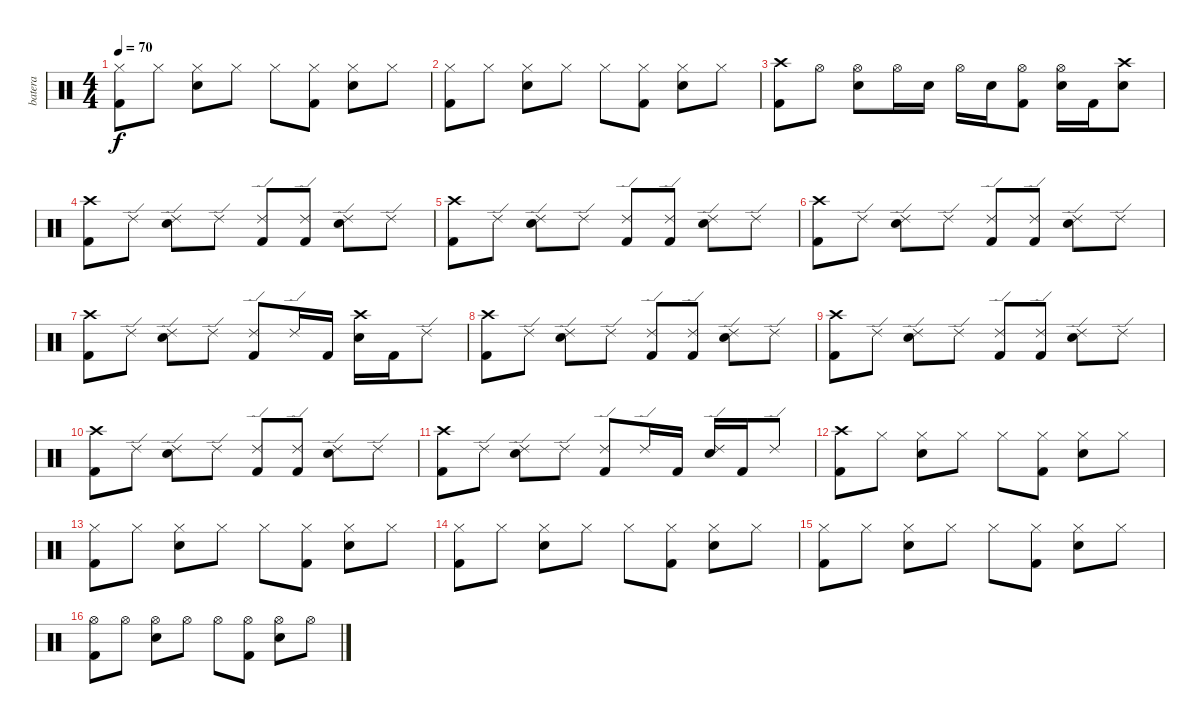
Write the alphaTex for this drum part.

\track ("batera" "batera") {instrument percussion}
\staff {score}
\articulation defaults
\ts (4 4)
\tempo 70
\clef neutral
\ks c
("Kick (hit) 2" "Hi-Hat (closed)").8{dy f} "Hi-Hat (closed)".8 ("Electric Snare (hit)" "Hi-Hat (closed)").8 "Hi-Hat (closed)".8 "Hi-Hat (closed)".8 ("Kick (hit) 2" "Hi-Hat (closed)").8 ("Electric Snare (hit)" "Hi-Hat (closed)").8 "Hi-Hat (closed)".8 |
("Kick (hit) 2" "Hi-Hat (closed)").8 "Hi-Hat (closed)".8 ("Electric Snare (hit)" "Hi-Hat (closed)").8 "Hi-Hat (closed)".8 "Hi-Hat (closed)".8 ("Kick (hit) 2" "Hi-Hat (closed)").8 ("Electric Snare (hit)" "Hi-Hat (closed)").8 "Hi-Hat (closed)".8 |
("Crash high (hit)" "Kick (hit) 2").8 "Hi-Hat (open)".8 ("Electric Snare (hit)" "Hi-Hat (open)").8 "Hi-Hat (open)".16 "Electric Snare (hit)".16 "Hi-Hat (open)".16 "Electric Snare (hit)".16 ("Kick (hit) 2" "Hi-Hat (open)").8 ("Electric Snare (hit)" "Hi-Hat (open)").16 "Kick (hit) 2".16 ("Crash high (hit)" "Electric Snare (hit)").8 |
("Crash high (hit)" "Kick (hit) 2").8 "Ride (edge) 2".8 ("Electric Snare (hit)" "Ride (edge) 2").8 "Ride (edge) 2".8 ("Kick (hit) 2" "Ride (edge) 2").8 ("Kick (hit) 2" "Ride (edge) 2").8 ("Electric Snare (hit)" "Ride (edge) 2").8 "Ride (edge) 2".8 |
("Crash high (hit)" "Kick (hit) 2").8 "Ride (edge) 2".8 ("Electric Snare (hit)" "Ride (edge) 2").8 "Ride (edge) 2".8 ("Kick (hit) 2" "Ride (edge) 2").8 ("Kick (hit) 2" "Ride (edge) 2").8 ("Electric Snare (hit)" "Ride (edge) 2").8 "Ride (edge) 2".8 |
("Crash high (hit)" "Kick (hit) 2").8 "Ride (edge) 2".8 ("Electric Snare (hit)" "Ride (edge) 2").8 "Ride (edge) 2".8 ("Kick (hit) 2" "Ride (edge) 2").8 ("Kick (hit) 2" "Ride (edge) 2").8 ("Electric Snare (hit)" "Ride (edge) 2").8 "Ride (edge) 2".8 |
("Crash high (hit)" "Kick (hit) 2").8 "Ride (edge) 2".8 ("Electric Snare (hit)" "Ride (edge) 2").8 "Ride (edge) 2".8 ("Kick (hit) 2" "Ride (edge) 2").8 "Ride (edge) 2".16 "Kick (hit) 2".16 ("Crash high (hit)" "Electric Snare (hit)").16 "Kick (hit) 2".16 "Ride (edge) 2".8 |
("Crash high (hit)" "Kick (hit) 2").8 "Ride (edge) 2".8 ("Electric Snare (hit)" "Ride (edge) 2").8 "Ride (edge) 2".8 ("Kick (hit) 2" "Ride (edge) 2").8 ("Kick (hit) 2" "Ride (edge) 2").8 ("Electric Snare (hit)" "Ride (edge) 2").8 "Ride (edge) 2".8 |
("Crash high (hit)" "Kick (hit) 2").8 "Ride (edge) 2".8 ("Electric Snare (hit)" "Ride (edge) 2").8 "Ride (edge) 2".8 ("Kick (hit) 2" "Ride (edge) 2").8 ("Kick (hit) 2" "Ride (edge) 2").8 ("Electric Snare (hit)" "Ride (edge) 2").8 "Ride (edge) 2".8 |
("Crash high (hit)" "Kick (hit) 2").8 "Ride (edge) 2".8 ("Electric Snare (hit)" "Ride (edge) 2").8 "Ride (edge) 2".8 ("Kick (hit) 2" "Ride (edge) 2").8 ("Kick (hit) 2" "Ride (edge) 2").8 ("Electric Snare (hit)" "Ride (edge) 2").8 "Ride (edge) 2".8 |
("Crash high (hit)" "Kick (hit) 2").8 "Ride (edge) 2".8 ("Electric Snare (hit)" "Ride (edge) 2").8 "Ride (edge) 2".8 ("Kick (hit) 2" "Ride (edge) 2").8 "Ride (edge) 2".16 "Kick (hit) 2".16 ("Electric Snare (hit)" "Ride (edge) 2").16 "Kick (hit) 2".16 "Ride (edge) 2".8 |
("Crash high (hit)" "Kick (hit) 2").8 "Hi-Hat (closed)".8 ("Electric Snare (hit)" "Hi-Hat (closed)").8 "Hi-Hat (closed)".8 "Hi-Hat (closed)".8 ("Kick (hit) 2" "Hi-Hat (closed)").8 ("Electric Snare (hit)" "Hi-Hat (closed)").8 "Hi-Hat (closed)".8 |
("Kick (hit) 2" "Hi-Hat (closed)").8 "Hi-Hat (closed)".8 ("Electric Snare (hit)" "Hi-Hat (closed)").8 "Hi-Hat (closed)".8 "Hi-Hat (closed)".8 ("Kick (hit) 2" "Hi-Hat (closed)").8 ("Electric Snare (hit)" "Hi-Hat (closed)").8 "Hi-Hat (closed)".8 |
("Kick (hit) 2" "Hi-Hat (closed)").8 "Hi-Hat (closed)".8 ("Electric Snare (hit)" "Hi-Hat (closed)").8 "Hi-Hat (closed)".8 "Hi-Hat (closed)".8 ("Kick (hit) 2" "Hi-Hat (closed)").8 ("Electric Snare (hit)" "Hi-Hat (closed)").8 "Hi-Hat (closed)".8 |
("Kick (hit) 2" "Hi-Hat (closed)").8 "Hi-Hat (closed)".8 ("Electric Snare (hit)" "Hi-Hat (closed)").8 "Hi-Hat (closed)".8 "Hi-Hat (closed)".8 ("Kick (hit) 2" "Hi-Hat (closed)").8 ("Electric Snare (hit)" "Hi-Hat (closed)").8 "Hi-Hat (closed)".8 |
("Kick (hit) 2" "Hi-Hat (open)").8 "Hi-Hat (open)".8 ("Electric Snare (hit)" "Hi-Hat (open)").8 "Hi-Hat (open)".8 "Hi-Hat (open)".8 ("Kick (hit) 2" "Hi-Hat (open)").8 ("Electric Snare (hit)" "Hi-Hat (open)").8 "Hi-Hat (open)".8
